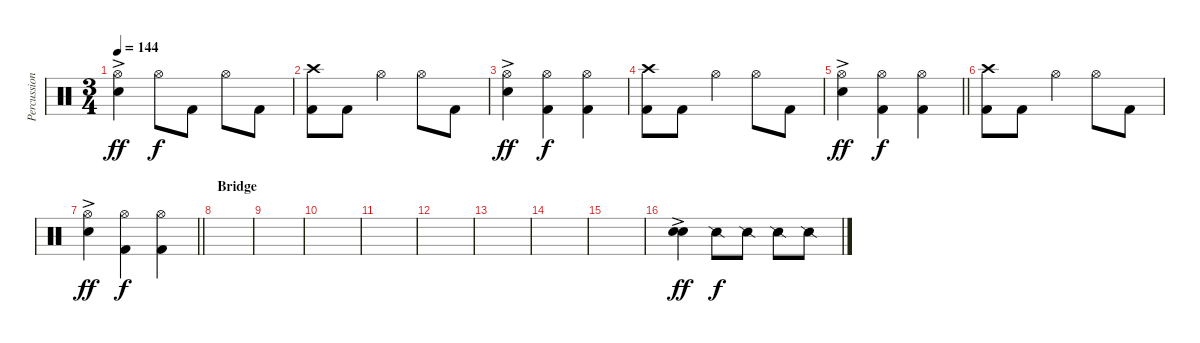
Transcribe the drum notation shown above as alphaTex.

\track ("Percussion" "Percussion") {instrument percussion}
\staff {score}
\articulation defaults
\ts (3 4)
\tempo 144
\clef neutral
\ks c
("Hi-Hat (open)" "Electric Snare (hit)"{ac}).4{dy ff} "Hi-Hat (open)".8{dy f} "Kick (hit) 2".8 "Hi-Hat (open)".8 "Kick (hit) 2".8 |
("Crash high (hit)" "Kick (hit) 2").8 "Kick (hit) 2".8 "Hi-Hat (open)".4 "Hi-Hat (open)".8 "Kick (hit) 2".8 |
("Hi-Hat (open)" "Electric Snare (hit)"{ac}).4{dy ff} ("Hi-Hat (open)" "Kick (hit) 2").4{dy f} ("Hi-Hat (open)" "Kick (hit) 2").4 |
("Crash high (hit)" "Kick (hit) 2").8 "Kick (hit) 2".8 "Hi-Hat (open)".4 "Hi-Hat (open)".8 "Kick (hit) 2".8 |
\barLineRight lightlight
("Hi-Hat (open)" "Electric Snare (hit)"{ac}).4{dy ff} ("Hi-Hat (open)" "Kick (hit) 2").4{dy f} ("Hi-Hat (open)" "Kick (hit) 2").4 |
("Crash high (hit)" "Kick (hit) 2").8 "Kick (hit) 2".8 "Hi-Hat (open)".4 "Hi-Hat (open)".8 "Kick (hit) 2".8 |
\barLineRight lightlight
("Hi-Hat (open)" "Electric Snare (hit)"{ac}).4{dy ff} ("Hi-Hat (open)" "Kick (hit) 2").4{dy f} ("Hi-Hat (open)" "Kick (hit) 2").4 |
\section ("" "Bridge")
|
|
|
|
|
|
|
|
("Electric Snare (hit)"{ac} "Electric Snare (hit)"{ac}).4{bu 120 dy ff} "Snare (side stick) 2".8{dy f} "Snare (side stick) 2".8 "Snare (side stick) 2".8 "Snare (side stick) 2".8
